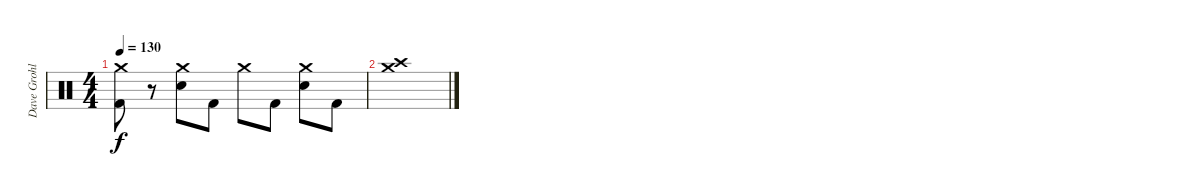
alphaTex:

\track ("Dave Grohl" "Dave Grohl") {instrument percussion}
\staff {score}
\articulation defaults
\ts (4 4)
\tempo 130
\clef neutral
\ks c
("Crash medium (hit)" "Kick (hit) 2").8{dy f} r.8 ("Crash medium (hit)" "Snare (hit) 2").8 "Kick (hit) 2".8 "Crash medium (hit)".8 "Kick (hit) 2".8 ("Crash medium (hit)" "Snare (hit) 2").8 "Kick (hit) 2".8 |
("Crash medium (hit)" "Crash high (hit)").1
